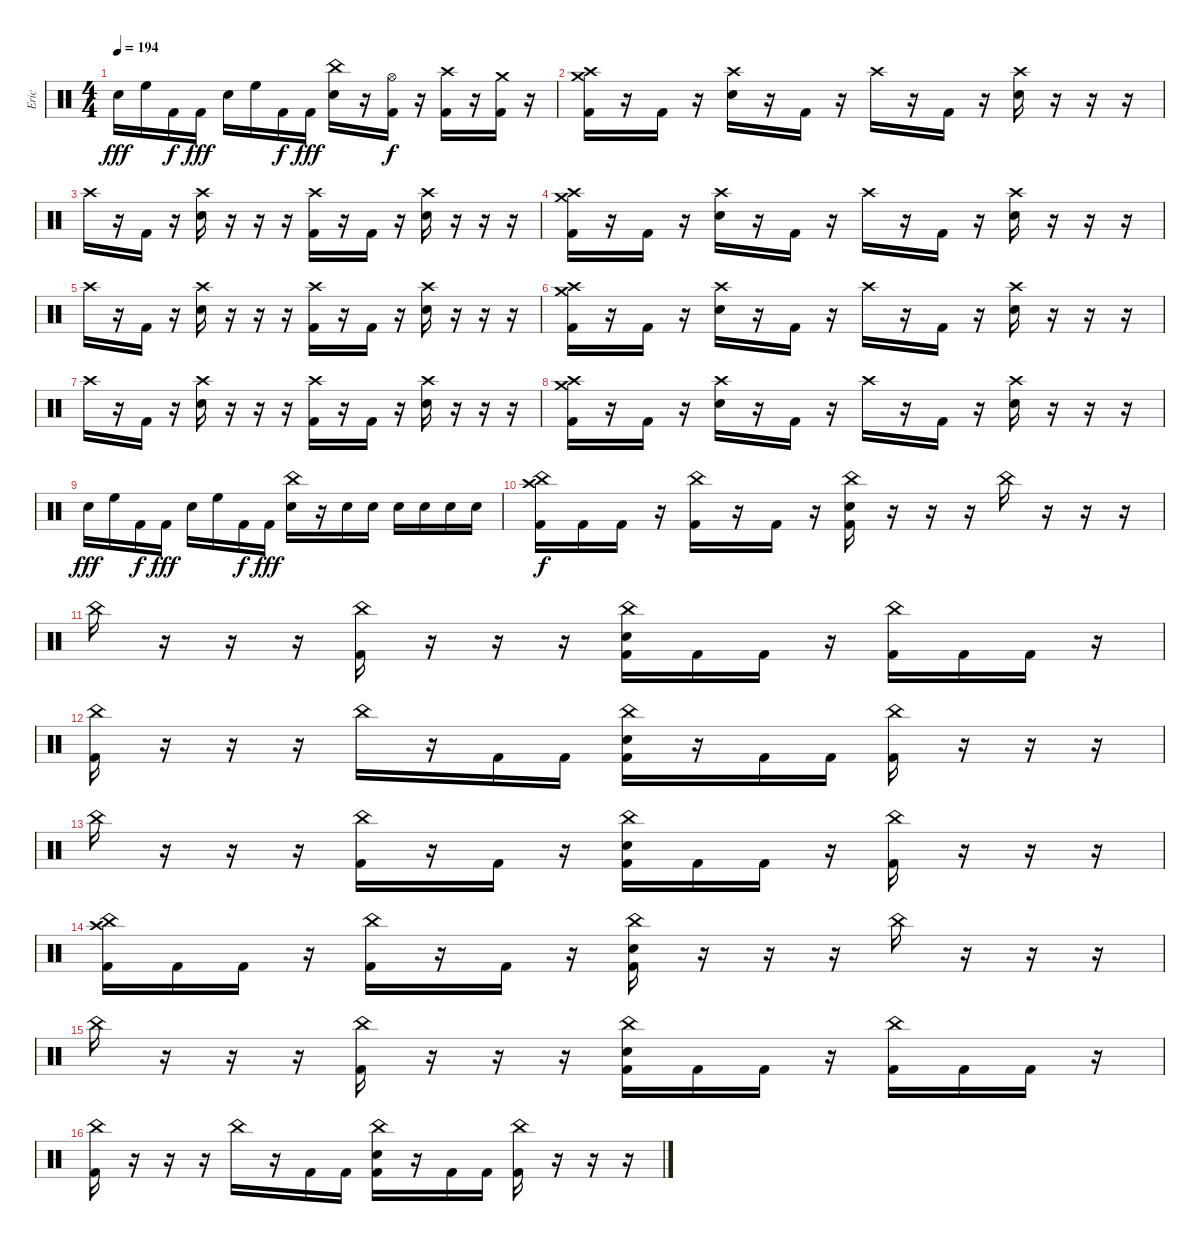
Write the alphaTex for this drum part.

\track ("Eric" "Eric") {instrument percussion}
\staff {score}
\articulation defaults
\ts (4 4)
\tempo 194
\clef neutral
\ks c "Electric Snare (hit)".16{dy fff} "High Floor Tom (hit)".16 "Kick (hit) 2".16{dy f} "Kick (hit) 2".16{dy fff} "Electric Snare (hit)".16 "High Floor Tom (hit)".16 "Kick (hit) 2".16{dy f} "Kick (hit) 2".16{dy fff}
("China (hit)" "Electric Snare (hit)").16 r.16 ("Hi-Hat (open)" "Kick (hit) 2").16{dy f} r.16 ("Crash high (hit)" "Kick (hit) 2").16 r.16 ("Crash medium (hit)" "Kick (hit) 2").16 r.16 |
("Crash high (hit)" "Crash medium (hit)" "Kick (hit) 2").16 r.16 "Kick (hit) 2".16 r.16 ("Crash high (hit)" "Electric Snare (hit)").16 r.16 "Kick (hit) 2".16 r.16 "Crash high (hit)".16 r.16 "Kick (hit) 2".16 r.16 ("Crash high (hit)" "Electric Snare (hit)").16 r.16 r.16 r.16 |
"Crash high (hit)".16 r.16 "Kick (hit) 2".16 r.16 ("Crash high (hit)" "Electric Snare (hit)").16 r.16 r.16 r.16 ("Crash high (hit)" "Kick (hit) 2").16 r.16 "Kick (hit) 2".16 r.16 ("Crash high (hit)" "Electric Snare (hit)").16 r.16 r.16 r.16 |
("Crash high (hit)" "Crash medium (hit)" "Kick (hit) 2").16 r.16 "Kick (hit) 2".16 r.16 ("Crash high (hit)" "Electric Snare (hit)").16 r.16 "Kick (hit) 2".16 r.16 "Crash high (hit)".16 r.16 "Kick (hit) 2".16 r.16 ("Crash high (hit)" "Electric Snare (hit)").16 r.16 r.16 r.16 |
"Crash high (hit)".16 r.16 "Kick (hit) 2".16 r.16 ("Crash high (hit)" "Electric Snare (hit)").16 r.16 r.16 r.16 ("Crash high (hit)" "Kick (hit) 2").16 r.16 "Kick (hit) 2".16 r.16 ("Crash high (hit)" "Electric Snare (hit)").16 r.16 r.16 r.16 |
("Crash high (hit)" "Crash medium (hit)" "Kick (hit) 2").16 r.16 "Kick (hit) 2".16 r.16 ("Crash high (hit)" "Electric Snare (hit)").16 r.16 "Kick (hit) 2".16 r.16 "Crash high (hit)".16 r.16 "Kick (hit) 2".16 r.16 ("Crash high (hit)" "Electric Snare (hit)").16 r.16 r.16 r.16 |
"Crash high (hit)".16 r.16 "Kick (hit) 2".16 r.16 ("Crash high (hit)" "Electric Snare (hit)").16 r.16 r.16 r.16 ("Crash high (hit)" "Kick (hit) 2").16 r.16 "Kick (hit) 2".16 r.16 ("Crash high (hit)" "Electric Snare (hit)").16 r.16 r.16 r.16 |
("Crash high (hit)" "Crash medium (hit)" "Kick (hit) 2").16 r.16 "Kick (hit) 2".16 r.16 ("Crash high (hit)" "Electric Snare (hit)").16 r.16 "Kick (hit) 2".16 r.16 "Crash high (hit)".16 r.16 "Kick (hit) 2".16 r.16 ("Crash high (hit)" "Electric Snare (hit)").16 r.16 r.16 r.16 |
"Electric Snare (hit)".16{dy fff} "High Floor Tom (hit)".16 "Kick (hit) 2".16{dy f} "Kick (hit) 2".16{dy fff} "Electric Snare (hit)".16 "High Floor Tom (hit)".16 "Kick (hit) 2".16{dy f} "Kick (hit) 2".16{dy fff} ("China (hit)" "Electric Snare (hit)").16 r.16 "Electric Snare (hit)".16 "Electric Snare (hit)".16 "Electric Snare (hit)".16 "Electric Snare (hit)".16 "Electric Snare (hit)".16 "Electric Snare (hit)".16 |
("China (hit)" "Crash high (hit)" "Kick (hit) 2").16{dy f} "Kick (hit) 2".16 "Kick (hit) 2".16 r.16 ("China (hit)" "Kick (hit) 2").16 r.16 "Kick (hit) 2".16 r.16 ("China (hit)" "Electric Snare (hit)" "Kick (hit) 2").16 r.16 r.16 r.16 "China (hit)".16 r.16 r.16 r.16 |
"China (hit)".16 r.16 r.16 r.16 ("China (hit)" "Kick (hit) 2").16 r.16 r.16 r.16 ("China (hit)" "Electric Snare (hit)" "Kick (hit) 2").16 "Kick (hit) 2".16 "Kick (hit) 2".16 r.16 ("China (hit)" "Kick (hit) 2").16 "Kick (hit) 2".16 "Kick (hit) 2".16 r.16 |
("China (hit)" "Kick (hit) 2").16 r.16 r.16 r.16 "China (hit)".16 r.16 "Kick (hit) 2".16 "Kick (hit) 2".16 ("China (hit)" "Electric Snare (hit)" "Kick (hit) 2").16 r.16 "Kick (hit) 2".16 "Kick (hit) 2".16 ("China (hit)" "Kick (hit) 2").16 r.16 r.16 r.16 |
"China (hit)".16 r.16 r.16 r.16 ("China (hit)" "Kick (hit) 2").16 r.16 "Kick (hit) 2".16 r.16 ("China (hit)" "Electric Snare (hit)" "Kick (hit) 2").16 "Kick (hit) 2".16 "Kick (hit) 2".16 r.16 ("China (hit)" "Kick (hit) 2").16 r.16 r.16 r.16 |
("China (hit)" "Crash high (hit)" "Kick (hit) 2").16 "Kick (hit) 2".16 "Kick (hit) 2".16 r.16 ("China (hit)" "Kick (hit) 2").16 r.16 "Kick (hit) 2".16 r.16 ("China (hit)" "Electric Snare (hit)" "Kick (hit) 2").16 r.16 r.16 r.16 "China (hit)".16 r.16 r.16 r.16 |
"China (hit)".16 r.16 r.16 r.16 ("China (hit)" "Kick (hit) 2").16 r.16 r.16 r.16 ("China (hit)" "Electric Snare (hit)" "Kick (hit) 2").16 "Kick (hit) 2".16 "Kick (hit) 2".16 r.16 ("China (hit)" "Kick (hit) 2").16 "Kick (hit) 2".16 "Kick (hit) 2".16 r.16 |
("China (hit)" "Kick (hit) 2").16 r.16 r.16 r.16 "China (hit)".16 r.16 "Kick (hit) 2".16 "Kick (hit) 2".16 ("China (hit)" "Electric Snare (hit)" "Kick (hit) 2").16 r.16 "Kick (hit) 2".16 "Kick (hit) 2".16 ("China (hit)" "Kick (hit) 2").16 r.16 r.16 r.16
